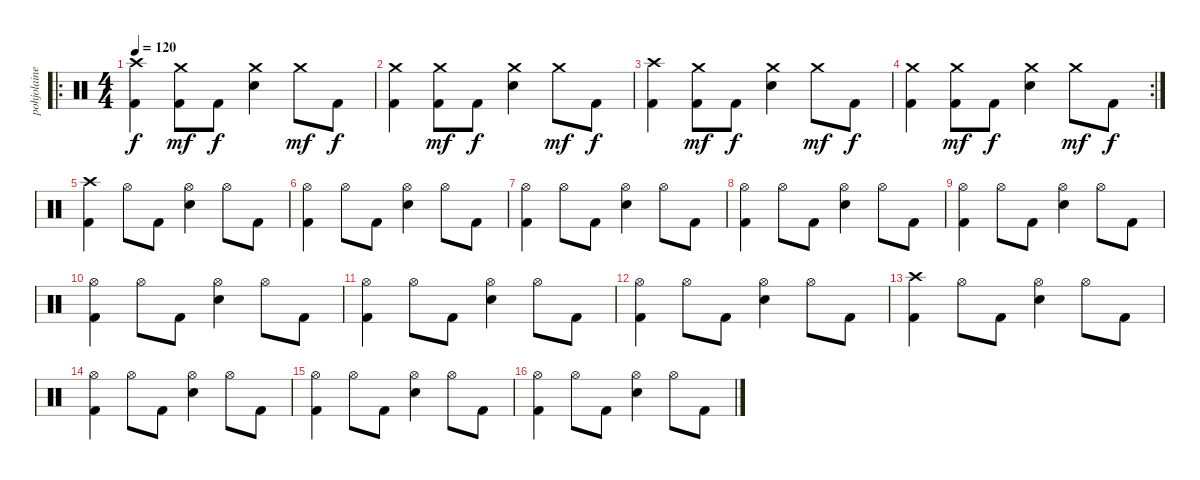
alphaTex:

\track ("pohjolainen" "pohjolaine") {instrument percussion}
\staff {score}
\articulation defaults
\ro
\ts (4 4)
\tempo 120
\clef neutral
\ks c
("Kick (hit) 2" "Crash high (hit)").4{dy f} ("Kick (hit) 2" "Crash medium (hit)").8{dy mf} "Kick (hit) 2".8{dy f} ("Crash medium (hit)" "Snare (hit) 2").4 "Crash medium (hit)".8{dy mf} "Kick (hit) 2".8{dy f} |
("Kick (hit) 2" "Crash medium (hit)").4 ("Kick (hit) 2" "Crash medium (hit)").8{dy mf} "Kick (hit) 2".8{dy f} ("Crash medium (hit)" "Snare (hit) 2").4 "Crash medium (hit)".8{dy mf} "Kick (hit) 2".8{dy f} |
("Kick (hit) 2" "Crash high (hit)").4 ("Kick (hit) 2" "Crash medium (hit)").8{dy mf} "Kick (hit) 2".8{dy f} ("Crash medium (hit)" "Snare (hit) 2").4 "Crash medium (hit)".8{dy mf} "Kick (hit) 2".8{dy f} |
\rc 2
("Kick (hit) 2" "Crash medium (hit)").4 ("Kick (hit) 2" "Crash medium (hit)").8{dy mf} "Kick (hit) 2".8{dy f} ("Crash medium (hit)" "Snare (hit) 2").4 "Crash medium (hit)".8{dy mf} "Kick (hit) 2".8{dy f} |
("Kick (hit) 2" "Crash high (hit)").4 "Hi-Hat (open)".8 "Kick (hit) 2".8 ("Hi-Hat (open)" "Snare (hit) 2").4 "Hi-Hat (open)".8 "Kick (hit) 2".8 |
("Kick (hit) 2" "Hi-Hat (open)").4 "Hi-Hat (open)".8 "Kick (hit) 2".8 ("Hi-Hat (open)" "Snare (hit) 2").4 "Hi-Hat (open)".8 "Kick (hit) 2".8 |
("Kick (hit) 2" "Hi-Hat (open)").4 "Hi-Hat (open)".8 "Kick (hit) 2".8 ("Hi-Hat (open)" "Snare (hit) 2").4 "Hi-Hat (open)".8 "Kick (hit) 2".8 |
("Kick (hit) 2" "Hi-Hat (open)").4 "Hi-Hat (open)".8 "Kick (hit) 2".8 ("Hi-Hat (open)" "Snare (hit) 2").4 "Hi-Hat (open)".8 "Kick (hit) 2".8 |
("Kick (hit) 2" "Hi-Hat (open)").4 "Hi-Hat (open)".8 "Kick (hit) 2".8 ("Hi-Hat (open)" "Snare (hit) 2").4 "Hi-Hat (open)".8 "Kick (hit) 2".8 |
("Kick (hit) 2" "Hi-Hat (open)").4 "Hi-Hat (open)".8 "Kick (hit) 2".8 ("Hi-Hat (open)" "Snare (hit) 2").4 "Hi-Hat (open)".8 "Kick (hit) 2".8 |
("Kick (hit) 2" "Hi-Hat (open)").4 "Hi-Hat (open)".8 "Kick (hit) 2".8 ("Hi-Hat (open)" "Snare (hit) 2").4 "Hi-Hat (open)".8 "Kick (hit) 2".8 |
("Kick (hit) 2" "Hi-Hat (open)").4 "Hi-Hat (open)".8 "Kick (hit) 2".8 ("Hi-Hat (open)" "Snare (hit) 2").4 "Hi-Hat (open)".8 "Kick (hit) 2".8 |
("Kick (hit) 2" "Crash high (hit)").4 "Hi-Hat (open)".8 "Kick (hit) 2".8 ("Hi-Hat (open)" "Snare (hit) 2").4 "Hi-Hat (open)".8 "Kick (hit) 2".8 |
("Kick (hit) 2" "Hi-Hat (open)").4 "Hi-Hat (open)".8 "Kick (hit) 2".8 ("Hi-Hat (open)" "Snare (hit) 2").4 "Hi-Hat (open)".8 "Kick (hit) 2".8 |
("Kick (hit) 2" "Hi-Hat (open)").4 "Hi-Hat (open)".8 "Kick (hit) 2".8 ("Hi-Hat (open)" "Snare (hit) 2").4 "Hi-Hat (open)".8 "Kick (hit) 2".8 |
("Kick (hit) 2" "Hi-Hat (open)").4 "Hi-Hat (open)".8 "Kick (hit) 2".8 ("Hi-Hat (open)" "Snare (hit) 2").4 "Hi-Hat (open)".8 "Kick (hit) 2".8
